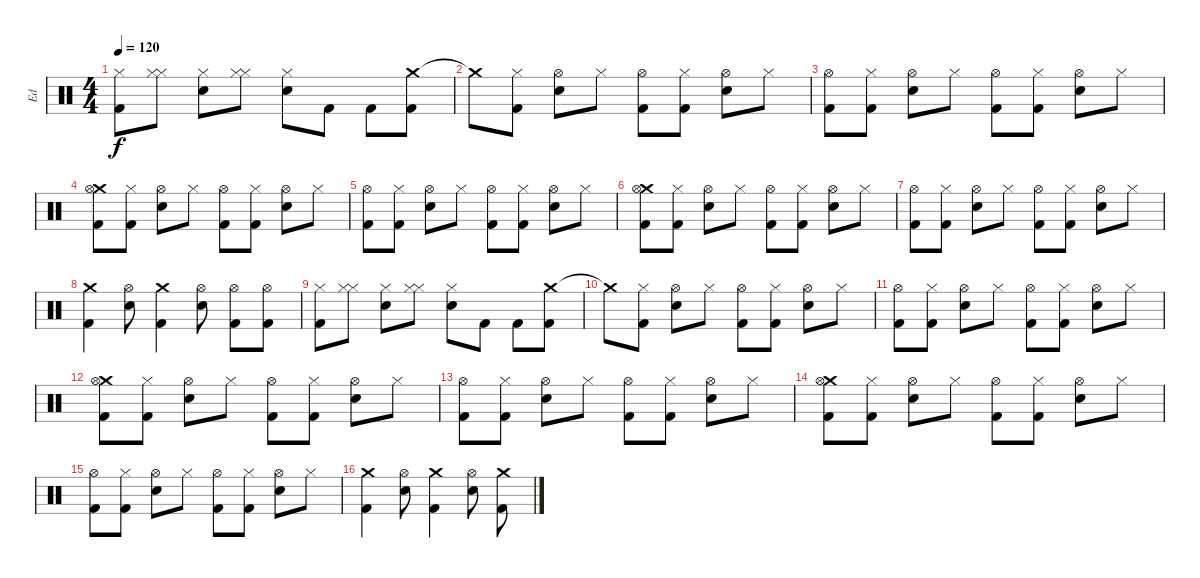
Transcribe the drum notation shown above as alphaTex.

\track ("Ed" "Ed") {instrument percussion}
\staff {score}
\articulation defaults
\ts (4 4)
\tempo 120
\clef neutral
\ks c
("Hi-Hat (closed)" "Kick (hit) 2").8{dy f} ("Hi-Hat (closed)" "Hi-Hat (closed)").8 ("Hi-Hat (closed)" "Snare (hit) 2").8 ("Hi-Hat (closed)" "Hi-Hat (closed)").8 ("Hi-Hat (closed)" "Snare (hit) 2").8 "Kick (hit) 2".8 "Kick (hit) 2".8 ("Crash medium (hit)" "Kick (hit) 2").8 |
"Crash medium (hit)"{t}.8 ("Hi-Hat (closed)" "Kick (hit) 2").8 ("Hi-Hat (open)" "Snare (hit) 2").8 "Hi-Hat (closed)".8 ("Kick (hit) 2" "Hi-Hat (open)").8 ("Kick (hit) 2" "Hi-Hat (closed)").8 ("Snare (hit) 2" "Hi-Hat (open)").8 "Hi-Hat (closed)".8 |
("Hi-Hat (open)" "Kick (hit) 2").8 ("Hi-Hat (closed)" "Kick (hit) 2").8 ("Hi-Hat (open)" "Snare (hit) 2").8 "Hi-Hat (closed)".8 ("Hi-Hat (open)" "Kick (hit) 2").8 ("Hi-Hat (closed)" "Kick (hit) 2").8 ("Hi-Hat (open)" "Snare (hit) 2").8 "Hi-Hat (closed)".8 |
("Crash medium (hit)" "Hi-Hat (open)" "Kick (hit) 2").8 ("Hi-Hat (closed)" "Kick (hit) 2").8 ("Hi-Hat (open)" "Snare (hit) 2").8 "Hi-Hat (closed)".8 ("Hi-Hat (open)" "Kick (hit) 2").8 ("Hi-Hat (closed)" "Kick (hit) 2").8 ("Hi-Hat (open)" "Snare (hit) 2").8 "Hi-Hat (closed)".8 |
("Hi-Hat (open)" "Kick (hit) 2").8 ("Hi-Hat (closed)" "Kick (hit) 2").8 ("Hi-Hat (open)" "Snare (hit) 2").8 "Hi-Hat (closed)".8 ("Hi-Hat (open)" "Kick (hit) 2").8 ("Hi-Hat (closed)" "Kick (hit) 2").8 ("Hi-Hat (open)" "Snare (hit) 2").8 "Hi-Hat (closed)".8 |
("Crash medium (hit)" "Hi-Hat (open)" "Kick (hit) 2").8 ("Hi-Hat (closed)" "Kick (hit) 2").8 ("Hi-Hat (open)" "Snare (hit) 2").8 "Hi-Hat (closed)".8 ("Hi-Hat (open)" "Kick (hit) 2").8 ("Hi-Hat (closed)" "Kick (hit) 2").8 ("Hi-Hat (open)" "Snare (hit) 2").8 "Hi-Hat (closed)".8 |
("Hi-Hat (open)" "Kick (hit) 2").8 ("Hi-Hat (closed)" "Kick (hit) 2").8 ("Hi-Hat (open)" "Snare (hit) 2").8 "Hi-Hat (closed)".8 ("Hi-Hat (open)" "Kick (hit) 2").8 ("Hi-Hat (closed)" "Kick (hit) 2").8 ("Hi-Hat (open)" "Snare (hit) 2").8 "Hi-Hat (closed)".8 |
("Kick (hit) 2" "Crash medium (hit)").4 ("Snare (hit) 2" "Hi-Hat (open)").8 ("Kick (hit) 2" "Crash medium (hit)").4 ("Hi-Hat (open)" "Snare (hit) 2").8 ("Kick (hit) 2" "Hi-Hat (open)").8 ("Kick (hit) 2" "Hi-Hat (open)").8 |
("Hi-Hat (closed)" "Kick (hit) 2").8 ("Hi-Hat (closed)" "Hi-Hat (closed)").8 ("Hi-Hat (closed)" "Snare (hit) 2").8 ("Hi-Hat (closed)" "Hi-Hat (closed)").8 ("Hi-Hat (closed)" "Snare (hit) 2").8 "Kick (hit) 2".8 "Kick (hit) 2".8 ("Crash medium (hit)" "Kick (hit) 2").8 |
"Crash medium (hit)"{t}.8 ("Hi-Hat (closed)" "Kick (hit) 2").8 ("Hi-Hat (open)" "Snare (hit) 2").8 "Hi-Hat (closed)".8 ("Kick (hit) 2" "Hi-Hat (open)").8 ("Kick (hit) 2" "Hi-Hat (closed)").8 ("Snare (hit) 2" "Hi-Hat (open)").8 "Hi-Hat (closed)".8 |
("Hi-Hat (open)" "Kick (hit) 2").8 ("Hi-Hat (closed)" "Kick (hit) 2").8 ("Hi-Hat (open)" "Snare (hit) 2").8 "Hi-Hat (closed)".8 ("Hi-Hat (open)" "Kick (hit) 2").8 ("Hi-Hat (closed)" "Kick (hit) 2").8 ("Hi-Hat (open)" "Snare (hit) 2").8 "Hi-Hat (closed)".8 |
("Crash medium (hit)" "Hi-Hat (open)" "Kick (hit) 2").8 ("Hi-Hat (closed)" "Kick (hit) 2").8 ("Hi-Hat (open)" "Snare (hit) 2").8 "Hi-Hat (closed)".8 ("Hi-Hat (open)" "Kick (hit) 2").8 ("Hi-Hat (closed)" "Kick (hit) 2").8 ("Hi-Hat (open)" "Snare (hit) 2").8 "Hi-Hat (closed)".8 |
("Hi-Hat (open)" "Kick (hit) 2").8 ("Hi-Hat (closed)" "Kick (hit) 2").8 ("Hi-Hat (open)" "Snare (hit) 2").8 "Hi-Hat (closed)".8 ("Hi-Hat (open)" "Kick (hit) 2").8 ("Hi-Hat (closed)" "Kick (hit) 2").8 ("Hi-Hat (open)" "Snare (hit) 2").8 "Hi-Hat (closed)".8 |
("Crash medium (hit)" "Hi-Hat (open)" "Kick (hit) 2").8 ("Hi-Hat (closed)" "Kick (hit) 2").8 ("Hi-Hat (open)" "Snare (hit) 2").8 "Hi-Hat (closed)".8 ("Hi-Hat (open)" "Kick (hit) 2").8 ("Hi-Hat (closed)" "Kick (hit) 2").8 ("Hi-Hat (open)" "Snare (hit) 2").8 "Hi-Hat (closed)".8 |
("Hi-Hat (open)" "Kick (hit) 2").8 ("Hi-Hat (closed)" "Kick (hit) 2").8 ("Hi-Hat (open)" "Snare (hit) 2").8 "Hi-Hat (closed)".8 ("Hi-Hat (open)" "Kick (hit) 2").8 ("Hi-Hat (closed)" "Kick (hit) 2").8 ("Hi-Hat (open)" "Snare (hit) 2").8 "Hi-Hat (closed)".8 |
("Kick (hit) 2" "Crash medium (hit)").4 ("Snare (hit) 2" "Hi-Hat (open)").8 ("Kick (hit) 2" "Crash medium (hit)").4 ("Hi-Hat (open)" "Snare (hit) 2").8 ("Kick (hit) 2" "Crash medium (hit)").8
